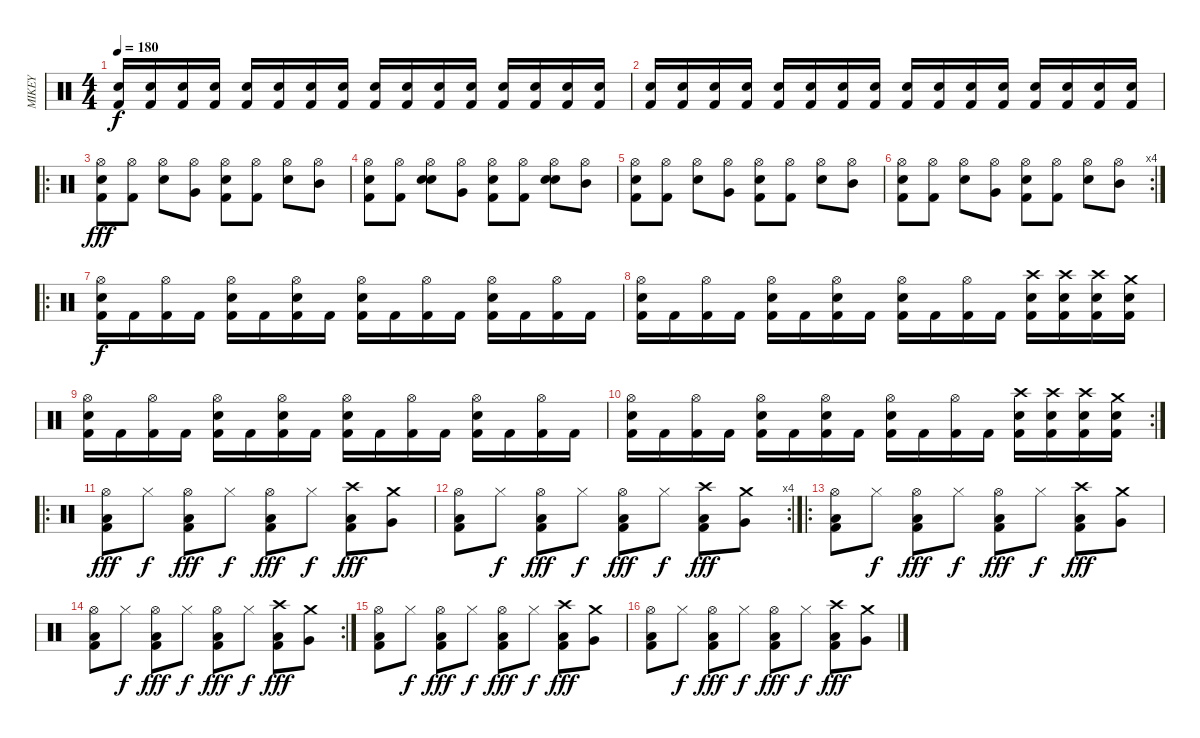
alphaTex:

\track ("MIKEY" "MIKEY") {instrument percussion}
\staff {score}
\articulation defaults
\ts (4 4)
\tempo 180
\clef neutral
\ks c
("Kick (hit) 2" "Electric Snare (hit)").16{dy f} ("Kick (hit) 2" "Electric Snare (hit)").16 ("Kick (hit) 2" "Electric Snare (hit)").16 ("Kick (hit) 2" "Electric Snare (hit)").16 ("Kick (hit) 2" "Electric Snare (hit)").16 ("Kick (hit) 2" "Electric Snare (hit)").16 ("Kick (hit) 2" "Electric Snare (hit)").16 ("Kick (hit) 2" "Electric Snare (hit)").16 ("Kick (hit) 2" "Electric Snare (hit)").16 ("Kick (hit) 2" "Electric Snare (hit)").16 ("Kick (hit) 2" "Electric Snare (hit)").16 ("Kick (hit) 2" "Electric Snare (hit)").16 ("Kick (hit) 2" "Electric Snare (hit)").16 ("Kick (hit) 2" "Electric Snare (hit)").16 ("Kick (hit) 2" "Electric Snare (hit)").16 ("Kick (hit) 2" "Electric Snare (hit)").16 |
("Kick (hit) 2" "Electric Snare (hit)").16 ("Kick (hit) 2" "Electric Snare (hit)").16 ("Kick (hit) 2" "Electric Snare (hit)").16 ("Kick (hit) 2" "Electric Snare (hit)").16 ("Kick (hit) 2" "Electric Snare (hit)").16 ("Kick (hit) 2" "Electric Snare (hit)").16 ("Kick (hit) 2" "Electric Snare (hit)").16 ("Kick (hit) 2" "Electric Snare (hit)").16 ("Kick (hit) 2" "Electric Snare (hit)").16 ("Kick (hit) 2" "Electric Snare (hit)").16 ("Kick (hit) 2" "Electric Snare (hit)").16 ("Kick (hit) 2" "Electric Snare (hit)").16 ("Kick (hit) 2" "Electric Snare (hit)").16 ("Kick (hit) 2" "Electric Snare (hit)").16 ("Kick (hit) 2" "Electric Snare (hit)").16 ("Kick (hit) 2" "Electric Snare (hit)").16 |
\ro
("Electric Snare (hit)" "Hi-Hat (open)" "Kick (hit) 2").8{dy fff} ("Hi-Hat (open)" "Kick (hit) 2").8 ("Hi-Hat (open)" "Snare (hit) 2").8 ("Hi-Hat (open)" "Very Low Tom (hit)").8 ("Electric Snare (hit)" "Hi-Hat (open)" "Kick (hit) 2").8 ("Hi-Hat (open)" "Kick (hit) 2").8 ("Hi-Hat (open)" "Snare (hit) 2").8 ("Hi-Hat (open)" "Mid Tom (hit)").8 |
("Electric Snare (hit)" "Hi-Hat (open)" "Kick (hit) 2").8 ("Hi-Hat (open)" "Kick (hit) 2").8 ("Electric Snare (hit)" "Hi-Hat (open)" "Snare (hit) 2").8 ("Hi-Hat (open)" "Very Low Tom (hit)").8 ("Electric Snare (hit)" "Hi-Hat (open)" "Kick (hit) 2").8 ("Hi-Hat (open)" "Kick (hit) 2").8 ("Electric Snare (hit)" "Hi-Hat (open)" "Snare (hit) 2").8 ("Hi-Hat (open)" "Mid Tom (hit)").8 |
("Electric Snare (hit)" "Hi-Hat (open)" "Kick (hit) 2").8 ("Hi-Hat (open)" "Kick (hit) 2").8 ("Hi-Hat (open)" "Snare (hit) 2").8 ("Hi-Hat (open)" "Very Low Tom (hit)").8 ("Electric Snare (hit)" "Hi-Hat (open)" "Kick (hit) 2").8 ("Hi-Hat (open)" "Kick (hit) 2").8 ("Hi-Hat (open)" "Snare (hit) 2").8 ("Hi-Hat (open)" "Mid Tom (hit)").8 |
\rc 4
("Electric Snare (hit)" "Hi-Hat (open)" "Kick (hit) 2").8 ("Hi-Hat (open)" "Kick (hit) 2").8 ("Hi-Hat (open)" "Snare (hit) 2").8 ("Hi-Hat (open)" "Very Low Tom (hit)").8 ("Electric Snare (hit)" "Hi-Hat (open)" "Kick (hit) 2").8 ("Hi-Hat (open)" "Kick (hit) 2").8 ("Hi-Hat (open)" "Snare (hit) 2").8 ("Hi-Hat (open)" "Mid Tom (hit)").8 |
\ro
("Hi-Hat (open)" "Electric Snare (hit)" "Kick (hit) 2").16{dy f} "Kick (hit) 2".16 ("Hi-Hat (open)" "Kick (hit) 2").16 "Kick (hit) 2".16 ("Hi-Hat (open)" "Electric Snare (hit)" "Kick (hit) 2").16 "Kick (hit) 2".16 ("Hi-Hat (open)" "Electric Snare (hit)" "Kick (hit) 2").16 "Kick (hit) 2".16 ("Hi-Hat (open)" "Electric Snare (hit)" "Kick (hit) 2").16 "Kick (hit) 2".16 ("Hi-Hat (open)" "Kick (hit) 2").16 "Kick (hit) 2".16 ("Hi-Hat (open)" "Electric Snare (hit)" "Kick (hit) 2").16 "Kick (hit) 2".16 ("Hi-Hat (open)" "Kick (hit) 2").16 "Kick (hit) 2".16 |
("Hi-Hat (open)" "Electric Snare (hit)" "Kick (hit) 2").16 "Kick (hit) 2".16 ("Hi-Hat (open)" "Kick (hit) 2").16 "Kick (hit) 2".16 ("Hi-Hat (open)" "Electric Snare (hit)" "Kick (hit) 2").16 "Kick (hit) 2".16 ("Hi-Hat (open)" "Electric Snare (hit)" "Kick (hit) 2").16 "Kick (hit) 2".16 ("Hi-Hat (open)" "Electric Snare (hit)" "Kick (hit) 2").16 "Kick (hit) 2".16 ("Hi-Hat (open)" "Kick (hit) 2").16 "Kick (hit) 2".16 ("Crash high (hit)" "Electric Snare (hit)" "Kick (hit) 2").16 ("Crash high (hit)" "Electric Snare (hit)" "Kick (hit) 2").16 ("Crash high (hit)" "Electric Snare (hit)" "Kick (hit) 2").16 ("Crash medium (hit)" "Electric Snare (hit)" "Kick (hit) 2").16 |
("Hi-Hat (open)" "Electric Snare (hit)" "Kick (hit) 2").16 "Kick (hit) 2".16 ("Hi-Hat (open)" "Kick (hit) 2").16 "Kick (hit) 2".16 ("Hi-Hat (open)" "Electric Snare (hit)" "Kick (hit) 2").16 "Kick (hit) 2".16 ("Hi-Hat (open)" "Electric Snare (hit)" "Kick (hit) 2").16 "Kick (hit) 2".16 ("Hi-Hat (open)" "Electric Snare (hit)" "Kick (hit) 2").16 "Kick (hit) 2".16 ("Hi-Hat (open)" "Kick (hit) 2").16 "Kick (hit) 2".16 ("Hi-Hat (open)" "Electric Snare (hit)" "Kick (hit) 2").16 "Kick (hit) 2".16 ("Hi-Hat (open)" "Kick (hit) 2").16 "Kick (hit) 2".16 |
\rc 2
("Hi-Hat (open)" "Electric Snare (hit)" "Kick (hit) 2").16 "Kick (hit) 2".16 ("Hi-Hat (open)" "Kick (hit) 2").16 "Kick (hit) 2".16 ("Hi-Hat (open)" "Electric Snare (hit)" "Kick (hit) 2").16 "Kick (hit) 2".16 ("Hi-Hat (open)" "Electric Snare (hit)" "Kick (hit) 2").16 "Kick (hit) 2".16 ("Hi-Hat (open)" "Electric Snare (hit)" "Kick (hit) 2").16 "Kick (hit) 2".16 ("Hi-Hat (open)" "Kick (hit) 2").16 "Kick (hit) 2".16 ("Crash high (hit)" "Electric Snare (hit)" "Kick (hit) 2").16 ("Crash high (hit)" "Electric Snare (hit)" "Kick (hit) 2").16 ("Crash high (hit)" "Electric Snare (hit)" "Kick (hit) 2").16 ("Crash medium (hit)" "Electric Snare (hit)" "Kick (hit) 2").16 |
\ro
("Low Floor Tom (hit)" "Kick (hit) 2" "Hi-Hat (open)").8{dy fff} "Hi-Hat (closed)".8{dy f} ("Low Floor Tom (hit)" "Kick (hit) 2" "Hi-Hat (open)").8{dy fff} "Hi-Hat (closed)".8{dy f} ("Low Floor Tom (hit)" "Kick (hit) 2" "Hi-Hat (open)").8{dy fff} "Hi-Hat (closed)".8{dy f} ("Low Floor Tom (hit)" "Kick (hit) 2" "Crash high (hit)").8{dy fff} ("Very Low Tom (hit)" "Crash medium (hit)").8 |
\rc 4
("Low Floor Tom (hit)" "Kick (hit) 2" "Hi-Hat (open)").8 "Hi-Hat (closed)".8{dy f} ("Low Floor Tom (hit)" "Kick (hit) 2" "Hi-Hat (open)").8{dy fff} "Hi-Hat (closed)".8{dy f} ("Low Floor Tom (hit)" "Kick (hit) 2" "Hi-Hat (open)").8{dy fff} "Hi-Hat (closed)".8{dy f} ("Low Floor Tom (hit)" "Kick (hit) 2" "Crash high (hit)").8{dy fff} ("Very Low Tom (hit)" "Crash medium (hit)").8 |
\ro
("Low Floor Tom (hit)" "Kick (hit) 2" "Hi-Hat (open)").8 "Hi-Hat (closed)".8{dy f} ("Low Floor Tom (hit)" "Kick (hit) 2" "Hi-Hat (open)").8{dy fff} "Hi-Hat (closed)".8{dy f} ("Low Floor Tom (hit)" "Kick (hit) 2" "Hi-Hat (open)").8{dy fff} "Hi-Hat (closed)".8{dy f} ("Low Floor Tom (hit)" "Kick (hit) 2" "Crash high (hit)").8{dy fff} ("Very Low Tom (hit)" "Crash medium (hit)").8 |
\rc 2
("Low Floor Tom (hit)" "Kick (hit) 2" "Hi-Hat (open)").8 "Hi-Hat (closed)".8{dy f} ("Low Floor Tom (hit)" "Kick (hit) 2" "Hi-Hat (open)").8{dy fff} "Hi-Hat (closed)".8{dy f} ("Low Floor Tom (hit)" "Kick (hit) 2" "Hi-Hat (open)").8{dy fff} "Hi-Hat (closed)".8{dy f} ("Low Floor Tom (hit)" "Kick (hit) 2" "Crash high (hit)").8{dy fff} ("Very Low Tom (hit)" "Crash medium (hit)").8 |
("Low Floor Tom (hit)" "Kick (hit) 2" "Hi-Hat (open)").8 "Hi-Hat (closed)".8{dy f} ("Low Floor Tom (hit)" "Kick (hit) 2" "Hi-Hat (open)").8{dy fff} "Hi-Hat (closed)".8{dy f} ("Low Floor Tom (hit)" "Kick (hit) 2" "Hi-Hat (open)").8{dy fff} "Hi-Hat (closed)".8{dy f} ("Low Floor Tom (hit)" "Kick (hit) 2" "Crash high (hit)").8{dy fff} ("Very Low Tom (hit)" "Crash medium (hit)").8 |
("Low Floor Tom (hit)" "Kick (hit) 2" "Hi-Hat (open)").8 "Hi-Hat (closed)".8{dy f} ("Low Floor Tom (hit)" "Kick (hit) 2" "Hi-Hat (open)").8{dy fff} "Hi-Hat (closed)".8{dy f} ("Low Floor Tom (hit)" "Kick (hit) 2" "Hi-Hat (open)").8{dy fff} "Hi-Hat (closed)".8{dy f} ("Low Floor Tom (hit)" "Kick (hit) 2" "Crash high (hit)").8{dy fff} ("Very Low Tom (hit)" "Crash medium (hit)").8
